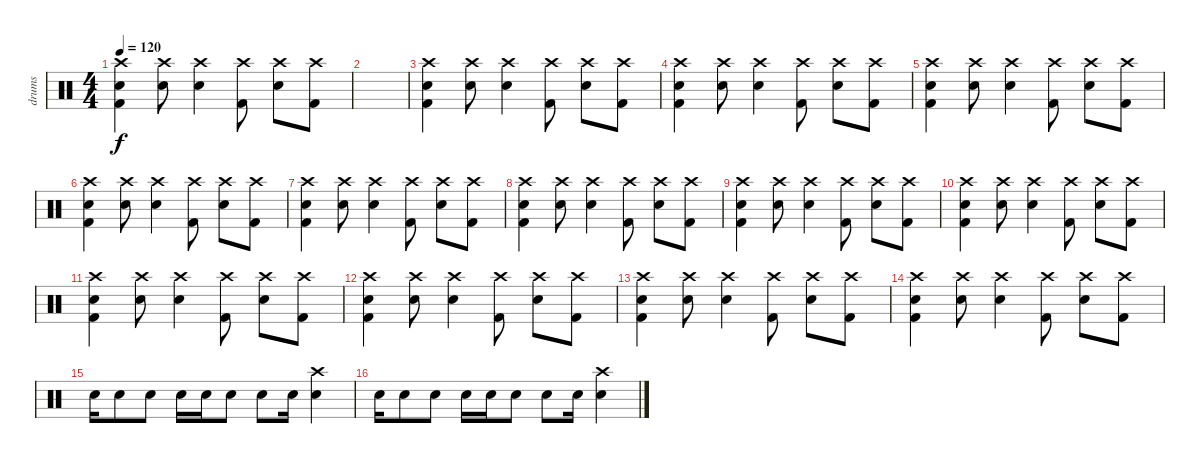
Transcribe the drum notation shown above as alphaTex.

\track ("drums" "drums") {instrument percussion}
\staff {score}
\articulation defaults
\ts (4 4)
\tempo 120
\clef neutral
\ks c
("Crash high (hit)" "Electric Snare (hit)" "Kick (hit) 2").4{dy f} ("Crash high (hit)" "Electric Snare (hit)").8 ("Crash high (hit)" "Electric Snare (hit)").4 ("Crash high (hit)" "Kick (hit) 2").8 ("Crash high (hit)" "Electric Snare (hit)").8 ("Crash high (hit)" "Kick (hit) 2").8 |
|
("Crash high (hit)" "Electric Snare (hit)" "Kick (hit) 2").4 ("Crash high (hit)" "Electric Snare (hit)").8 ("Crash high (hit)" "Electric Snare (hit)").4 ("Crash high (hit)" "Kick (hit) 2").8 ("Crash high (hit)" "Electric Snare (hit)").8 ("Crash high (hit)" "Kick (hit) 2").8 |
("Crash high (hit)" "Electric Snare (hit)" "Kick (hit) 2").4 ("Crash high (hit)" "Electric Snare (hit)").8 ("Crash high (hit)" "Electric Snare (hit)").4 ("Crash high (hit)" "Kick (hit) 2").8 ("Crash high (hit)" "Electric Snare (hit)").8 ("Crash high (hit)" "Kick (hit) 2").8 |
("Crash high (hit)" "Electric Snare (hit)" "Kick (hit) 2").4 ("Crash high (hit)" "Electric Snare (hit)").8 ("Crash high (hit)" "Electric Snare (hit)").4 ("Crash high (hit)" "Kick (hit) 2").8 ("Crash high (hit)" "Electric Snare (hit)").8 ("Crash high (hit)" "Kick (hit) 2").8 |
("Crash high (hit)" "Electric Snare (hit)" "Kick (hit) 2").4 ("Crash high (hit)" "Electric Snare (hit)").8 ("Crash high (hit)" "Electric Snare (hit)").4 ("Crash high (hit)" "Kick (hit) 2").8 ("Crash high (hit)" "Electric Snare (hit)").8 ("Crash high (hit)" "Kick (hit) 2").8 |
("Crash high (hit)" "Electric Snare (hit)" "Kick (hit) 2").4 ("Crash high (hit)" "Electric Snare (hit)").8 ("Crash high (hit)" "Electric Snare (hit)").4 ("Crash high (hit)" "Kick (hit) 2").8 ("Crash high (hit)" "Electric Snare (hit)").8 ("Crash high (hit)" "Kick (hit) 2").8 |
("Crash high (hit)" "Electric Snare (hit)" "Kick (hit) 2").4 ("Crash high (hit)" "Electric Snare (hit)").8 ("Crash high (hit)" "Electric Snare (hit)").4 ("Crash high (hit)" "Kick (hit) 2").8 ("Crash high (hit)" "Electric Snare (hit)").8 ("Crash high (hit)" "Kick (hit) 2").8 |
("Crash high (hit)" "Electric Snare (hit)" "Kick (hit) 2").4 ("Crash high (hit)" "Electric Snare (hit)").8 ("Crash high (hit)" "Electric Snare (hit)").4 ("Crash high (hit)" "Kick (hit) 2").8 ("Crash high (hit)" "Electric Snare (hit)").8 ("Crash high (hit)" "Kick (hit) 2").8 |
("Crash high (hit)" "Electric Snare (hit)" "Kick (hit) 2").4 ("Crash high (hit)" "Electric Snare (hit)").8 ("Crash high (hit)" "Electric Snare (hit)").4 ("Crash high (hit)" "Kick (hit) 2").8 ("Crash high (hit)" "Electric Snare (hit)").8 ("Crash high (hit)" "Kick (hit) 2").8 |
("Crash high (hit)" "Electric Snare (hit)" "Kick (hit) 2").4 ("Crash high (hit)" "Electric Snare (hit)").8 ("Crash high (hit)" "Electric Snare (hit)").4 ("Crash high (hit)" "Kick (hit) 2").8 ("Crash high (hit)" "Electric Snare (hit)").8 ("Crash high (hit)" "Kick (hit) 2").8 |
("Crash high (hit)" "Electric Snare (hit)" "Kick (hit) 2").4 ("Crash high (hit)" "Electric Snare (hit)").8 ("Crash high (hit)" "Electric Snare (hit)").4 ("Crash high (hit)" "Kick (hit) 2").8 ("Crash high (hit)" "Electric Snare (hit)").8 ("Crash high (hit)" "Kick (hit) 2").8 |
("Crash high (hit)" "Electric Snare (hit)" "Kick (hit) 2").4 ("Crash high (hit)" "Electric Snare (hit)").8 ("Crash high (hit)" "Electric Snare (hit)").4 ("Crash high (hit)" "Kick (hit) 2").8 ("Crash high (hit)" "Electric Snare (hit)").8 ("Crash high (hit)" "Kick (hit) 2").8 |
("Crash high (hit)" "Electric Snare (hit)" "Kick (hit) 2").4 ("Crash high (hit)" "Electric Snare (hit)").8 ("Crash high (hit)" "Electric Snare (hit)").4 ("Crash high (hit)" "Kick (hit) 2").8 ("Crash high (hit)" "Electric Snare (hit)").8 ("Crash high (hit)" "Kick (hit) 2").8 |
"Electric Snare (hit)".16 "Electric Snare (hit)".8 "Electric Snare (hit)".8 "Electric Snare (hit)".16 "Electric Snare (hit)".16 "Electric Snare (hit)".8 "Electric Snare (hit)".8 "Electric Snare (hit)".16 ("Crash high (hit)" "Electric Snare (hit)").4 |
"Electric Snare (hit)".16 "Electric Snare (hit)".8 "Electric Snare (hit)".8 "Electric Snare (hit)".16 "Electric Snare (hit)".16 "Electric Snare (hit)".8 "Electric Snare (hit)".8 "Electric Snare (hit)".16 ("Crash high (hit)" "Electric Snare (hit)").4
